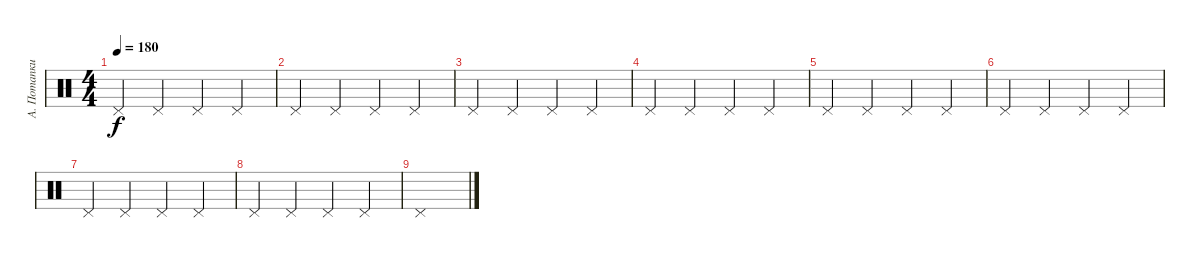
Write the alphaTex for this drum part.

\track ("А. Потапкин" "А. Потапки") {instrument percussion}
\staff {score}
\articulation defaults
\ts (4 4)
\tempo 180
\clef neutral
\ks c "Pedal Hi-Hat (hit)".4{dy f} "Pedal Hi-Hat (hit)".4 "Pedal Hi-Hat (hit)".4 "Pedal Hi-Hat (hit)".4
|
"Pedal Hi-Hat (hit)".4 "Pedal Hi-Hat (hit)".4 "Pedal Hi-Hat (hit)".4 "Pedal Hi-Hat (hit)".4 |
"Pedal Hi-Hat (hit)".4 "Pedal Hi-Hat (hit)".4 "Pedal Hi-Hat (hit)".4 "Pedal Hi-Hat (hit)".4 |
"Pedal Hi-Hat (hit)".4 "Pedal Hi-Hat (hit)".4 "Pedal Hi-Hat (hit)".4 "Pedal Hi-Hat (hit)".4 |
"Pedal Hi-Hat (hit)".4 "Pedal Hi-Hat (hit)".4 "Pedal Hi-Hat (hit)".4 "Pedal Hi-Hat (hit)".4 |
"Pedal Hi-Hat (hit)".4 "Pedal Hi-Hat (hit)".4 "Pedal Hi-Hat (hit)".4 "Pedal Hi-Hat (hit)".4 |
"Pedal Hi-Hat (hit)".4 "Pedal Hi-Hat (hit)".4 "Pedal Hi-Hat (hit)".4 "Pedal Hi-Hat (hit)".4 |
"Pedal Hi-Hat (hit)".4 "Pedal Hi-Hat (hit)".4 "Pedal Hi-Hat (hit)".4 "Pedal Hi-Hat (hit)".4 |
"Pedal Hi-Hat (hit)".1
